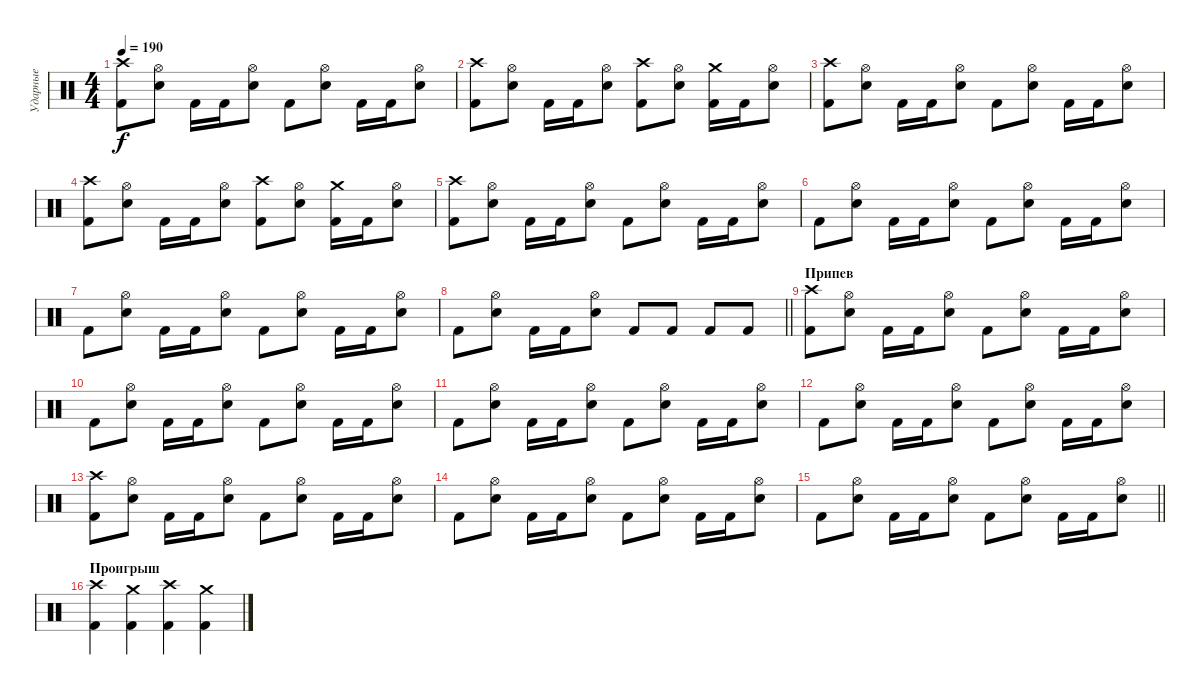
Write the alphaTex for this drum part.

\track ("Ударные" "Ударные") {instrument percussion}
\staff {score}
\articulation defaults
\ts (4 4)
\tempo 190
\clef neutral
\ks c
("Crash high (hit)" "Kick (hit) 2").8{dy f} ("Hi-Hat (open)" "Electric Snare (hit)").8 "Kick (hit) 2".16 "Kick (hit) 2".16 ("Hi-Hat (open)" "Electric Snare (hit)").8 "Kick (hit) 2".8 ("Hi-Hat (open)" "Electric Snare (hit)").8 "Kick (hit) 2".16 "Kick (hit) 2".16 ("Hi-Hat (open)" "Electric Snare (hit)").8 |
("Crash high (hit)" "Kick (hit) 2").8 ("Hi-Hat (open)" "Electric Snare (hit)").8 "Kick (hit) 2".16 "Kick (hit) 2".16 ("Hi-Hat (open)" "Electric Snare (hit)").8 ("Crash high (hit)" "Kick (hit) 2").8 ("Hi-Hat (open)" "Electric Snare (hit)").8 ("Crash medium (hit)" "Kick (hit) 2").16 "Kick (hit) 2".16 ("Hi-Hat (open)" "Electric Snare (hit)").8 |
("Crash high (hit)" "Kick (hit) 2").8 ("Hi-Hat (open)" "Electric Snare (hit)").8 "Kick (hit) 2".16 "Kick (hit) 2".16 ("Hi-Hat (open)" "Electric Snare (hit)").8 "Kick (hit) 2".8 ("Hi-Hat (open)" "Electric Snare (hit)").8 "Kick (hit) 2".16 "Kick (hit) 2".16 ("Hi-Hat (open)" "Electric Snare (hit)").8 |
("Crash high (hit)" "Kick (hit) 2").8 ("Hi-Hat (open)" "Electric Snare (hit)").8 "Kick (hit) 2".16 "Kick (hit) 2".16 ("Hi-Hat (open)" "Electric Snare (hit)").8 ("Crash high (hit)" "Kick (hit) 2").8 ("Hi-Hat (open)" "Electric Snare (hit)").8 ("Crash medium (hit)" "Kick (hit) 2").16 "Kick (hit) 2".16 ("Hi-Hat (open)" "Electric Snare (hit)").8 |
("Crash high (hit)" "Kick (hit) 2").8 ("Hi-Hat (open)" "Electric Snare (hit)").8 "Kick (hit) 2".16 "Kick (hit) 2".16 ("Hi-Hat (open)" "Electric Snare (hit)").8 "Kick (hit) 2".8 ("Hi-Hat (open)" "Electric Snare (hit)").8 "Kick (hit) 2".16 "Kick (hit) 2".16 ("Hi-Hat (open)" "Electric Snare (hit)").8 |
"Kick (hit) 2".8 ("Hi-Hat (open)" "Electric Snare (hit)").8 "Kick (hit) 2".16 "Kick (hit) 2".16 ("Hi-Hat (open)" "Electric Snare (hit)").8 "Kick (hit) 2".8 ("Hi-Hat (open)" "Electric Snare (hit)").8 "Kick (hit) 2".16 "Kick (hit) 2".16 ("Hi-Hat (open)" "Electric Snare (hit)").8 |
"Kick (hit) 2".8 ("Hi-Hat (open)" "Electric Snare (hit)").8 "Kick (hit) 2".16 "Kick (hit) 2".16 ("Hi-Hat (open)" "Electric Snare (hit)").8 "Kick (hit) 2".8 ("Hi-Hat (open)" "Electric Snare (hit)").8 "Kick (hit) 2".16 "Kick (hit) 2".16 ("Hi-Hat (open)" "Electric Snare (hit)").8 |
\barLineRight lightlight "Kick (hit) 2".8
("Hi-Hat (open)" "Electric Snare (hit)").8 "Kick (hit) 2".16 "Kick (hit) 2".16 ("Hi-Hat (open)" "Electric Snare (hit)").8 "Kick (hit) 2".8 "Kick (hit) 2".8 "Kick (hit) 2".8 "Kick (hit) 2".8 |
\section ("" "Припев")
("Crash high (hit)" "Kick (hit) 2").8 ("Hi-Hat (open)" "Electric Snare (hit)").8 "Kick (hit) 2".16 "Kick (hit) 2".16 ("Hi-Hat (open)" "Electric Snare (hit)").8 "Kick (hit) 2".8 ("Hi-Hat (open)" "Electric Snare (hit)").8 "Kick (hit) 2".16 "Kick (hit) 2".16 ("Hi-Hat (open)" "Electric Snare (hit)").8 |
"Kick (hit) 2".8 ("Hi-Hat (open)" "Electric Snare (hit)").8 "Kick (hit) 2".16 "Kick (hit) 2".16 ("Hi-Hat (open)" "Electric Snare (hit)").8 "Kick (hit) 2".8 ("Hi-Hat (open)" "Electric Snare (hit)").8 "Kick (hit) 2".16 "Kick (hit) 2".16 ("Hi-Hat (open)" "Electric Snare (hit)").8 |
"Kick (hit) 2".8 ("Hi-Hat (open)" "Electric Snare (hit)").8 "Kick (hit) 2".16 "Kick (hit) 2".16 ("Hi-Hat (open)" "Electric Snare (hit)").8 "Kick (hit) 2".8 ("Hi-Hat (open)" "Electric Snare (hit)").8 "Kick (hit) 2".16 "Kick (hit) 2".16 ("Hi-Hat (open)" "Electric Snare (hit)").8 |
"Kick (hit) 2".8 ("Hi-Hat (open)" "Electric Snare (hit)").8 "Kick (hit) 2".16 "Kick (hit) 2".16 ("Hi-Hat (open)" "Electric Snare (hit)").8 "Kick (hit) 2".8 ("Hi-Hat (open)" "Electric Snare (hit)").8 "Kick (hit) 2".16 "Kick (hit) 2".16 ("Hi-Hat (open)" "Electric Snare (hit)").8 |
("Crash high (hit)" "Kick (hit) 2").8 ("Hi-Hat (open)" "Electric Snare (hit)").8 "Kick (hit) 2".16 "Kick (hit) 2".16 ("Hi-Hat (open)" "Electric Snare (hit)").8 "Kick (hit) 2".8 ("Hi-Hat (open)" "Electric Snare (hit)").8 "Kick (hit) 2".16 "Kick (hit) 2".16 ("Hi-Hat (open)" "Electric Snare (hit)").8 |
"Kick (hit) 2".8 ("Hi-Hat (open)" "Electric Snare (hit)").8 "Kick (hit) 2".16 "Kick (hit) 2".16 ("Hi-Hat (open)" "Electric Snare (hit)").8 "Kick (hit) 2".8 ("Hi-Hat (open)" "Electric Snare (hit)").8 "Kick (hit) 2".16 "Kick (hit) 2".16 ("Hi-Hat (open)" "Electric Snare (hit)").8 |
\barLineRight lightlight "Kick (hit) 2".8
("Hi-Hat (open)" "Electric Snare (hit)").8 "Kick (hit) 2".16 "Kick (hit) 2".16 ("Hi-Hat (open)" "Electric Snare (hit)").8 "Kick (hit) 2".8 ("Hi-Hat (open)" "Electric Snare (hit)").8 "Kick (hit) 2".16 "Kick (hit) 2".16 ("Hi-Hat (open)" "Electric Snare (hit)").8 |
\section ("" "Проигрыш")
("Crash high (hit)" "Kick (hit) 2").4 ("Crash medium (hit)" "Kick (hit) 2").4 ("Crash high (hit)" "Kick (hit) 2").4 ("Crash medium (hit)" "Kick (hit) 2").4
